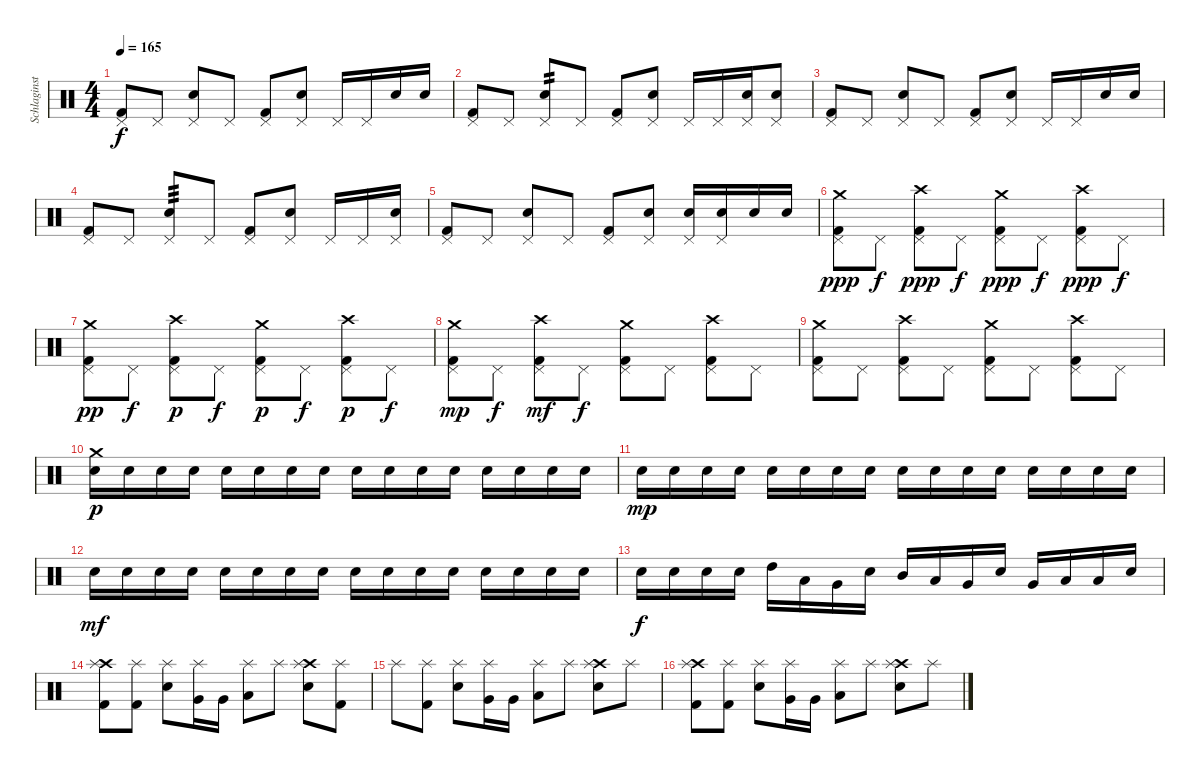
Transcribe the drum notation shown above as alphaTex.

\track ("Schlaginstrumente - Auswahl" "Schlaginst") {instrument percussion}
\staff {score}
\articulation defaults
\ts (4 4)
\tempo 165
\clef neutral
\ks c
("Pedal Hi-Hat (hit)" "Kick (hit) 2").8{dy f} "Pedal Hi-Hat (hit)".8 ("Pedal Hi-Hat (hit)" "Electric Snare (hit)").8 "Pedal Hi-Hat (hit)".8 ("Pedal Hi-Hat (hit)" "Kick (hit) 2").8 ("Pedal Hi-Hat (hit)" "Electric Snare (hit)").8 "Pedal Hi-Hat (hit)".16 "Pedal Hi-Hat (hit)".16 "Electric Snare (hit)".16 "Electric Snare (hit)".16 |
("Pedal Hi-Hat (hit)" "Kick (hit) 2").8 "Pedal Hi-Hat (hit)".8 ("Pedal Hi-Hat (hit)" "Electric Snare (hit)").8{tp 2} "Pedal Hi-Hat (hit)".8 ("Pedal Hi-Hat (hit)" "Kick (hit) 2").8 ("Pedal Hi-Hat (hit)" "Electric Snare (hit)").8 "Pedal Hi-Hat (hit)".16 "Pedal Hi-Hat (hit)".16 ("Pedal Hi-Hat (hit)" "Electric Snare (hit)").16 ("Pedal Hi-Hat (hit)" "Electric Snare (hit)").8 |
("Pedal Hi-Hat (hit)" "Kick (hit) 2").8 "Pedal Hi-Hat (hit)".8 ("Pedal Hi-Hat (hit)" "Electric Snare (hit)").8 "Pedal Hi-Hat (hit)".8 ("Pedal Hi-Hat (hit)" "Kick (hit) 2").8 ("Pedal Hi-Hat (hit)" "Electric Snare (hit)").8 "Pedal Hi-Hat (hit)".16 "Pedal Hi-Hat (hit)".16 "Electric Snare (hit)".16 "Electric Snare (hit)".16 |
("Pedal Hi-Hat (hit)" "Kick (hit) 2").8 "Pedal Hi-Hat (hit)".8 ("Pedal Hi-Hat (hit)" "Electric Snare (hit)").8{tp 3} "Pedal Hi-Hat (hit)".8 ("Pedal Hi-Hat (hit)" "Kick (hit) 2").8 ("Pedal Hi-Hat (hit)" "Electric Snare (hit)").8 "Pedal Hi-Hat (hit)".16 "Pedal Hi-Hat (hit)".16 ("Pedal Hi-Hat (hit)" "Electric Snare (hit)").16 |
("Pedal Hi-Hat (hit)" "Kick (hit) 2").8 "Pedal Hi-Hat (hit)".8 ("Pedal Hi-Hat (hit)" "Electric Snare (hit)").8 "Pedal Hi-Hat (hit)".8 ("Pedal Hi-Hat (hit)" "Kick (hit) 2").8 ("Pedal Hi-Hat (hit)" "Electric Snare (hit)").8 ("Pedal Hi-Hat (hit)" "Electric Snare (hit)").16 ("Pedal Hi-Hat (hit)" "Electric Snare (hit)").16 "Electric Snare (hit)".16 "Electric Snare (hit)".16 |
("Crash medium (hit)" "Pedal Hi-Hat (hit)" "Kick (hit) 2").8{dy ppp} "Pedal Hi-Hat (hit)".8{dy f} ("Crash high (hit)" "Pedal Hi-Hat (hit)" "Kick (hit) 2").8{dy ppp} "Pedal Hi-Hat (hit)".8{dy f} ("Crash medium (hit)" "Pedal Hi-Hat (hit)" "Kick (hit) 2").8{dy ppp} "Pedal Hi-Hat (hit)".8{dy f} ("Crash high (hit)" "Pedal Hi-Hat (hit)" "Kick (hit) 2").8{dy ppp} "Pedal Hi-Hat (hit)".8{dy f} |
("Crash medium (hit)" "Pedal Hi-Hat (hit)" "Kick (hit) 2").8{dy pp} "Pedal Hi-Hat (hit)".8{dy f} ("Crash high (hit)" "Pedal Hi-Hat (hit)" "Kick (hit) 2").8{dy p} "Pedal Hi-Hat (hit)".8{dy f} ("Crash medium (hit)" "Pedal Hi-Hat (hit)" "Kick (hit) 2").8{dy p} "Pedal Hi-Hat (hit)".8{dy f} ("Crash high (hit)" "Pedal Hi-Hat (hit)" "Kick (hit) 2").8{dy p} "Pedal Hi-Hat (hit)".8{dy f} |
("Crash medium (hit)" "Pedal Hi-Hat (hit)" "Kick (hit) 2").8{dy mp} "Pedal Hi-Hat (hit)".8{dy f} ("Crash high (hit)" "Pedal Hi-Hat (hit)" "Kick (hit) 2").8{dy mf} "Pedal Hi-Hat (hit)".8{dy f} ("Crash medium (hit)" "Pedal Hi-Hat (hit)" "Kick (hit) 2").8 "Pedal Hi-Hat (hit)".8 ("Crash high (hit)" "Pedal Hi-Hat (hit)" "Kick (hit) 2").8 "Pedal Hi-Hat (hit)".8 |
("Crash medium (hit)" "Pedal Hi-Hat (hit)" "Kick (hit) 2").8 "Pedal Hi-Hat (hit)".8 ("Crash high (hit)" "Pedal Hi-Hat (hit)" "Kick (hit) 2").8 "Pedal Hi-Hat (hit)".8 ("Crash medium (hit)" "Pedal Hi-Hat (hit)" "Kick (hit) 2").8 "Pedal Hi-Hat (hit)".8 ("Crash high (hit)" "Pedal Hi-Hat (hit)" "Kick (hit) 2").8 "Pedal Hi-Hat (hit)".8 |
("Crash medium (hit)" "Electric Snare (hit)").16{dy p} "Electric Snare (hit)".16 "Electric Snare (hit)".16 "Electric Snare (hit)".16 "Electric Snare (hit)".16 "Electric Snare (hit)".16 "Electric Snare (hit)".16 "Electric Snare (hit)".16 "Electric Snare (hit)".16 "Electric Snare (hit)".16 "Electric Snare (hit)".16 "Electric Snare (hit)".16 "Electric Snare (hit)".16 "Electric Snare (hit)".16 "Electric Snare (hit)".16 "Electric Snare (hit)".16 |
"Electric Snare (hit)".16{dy mp} "Electric Snare (hit)".16 "Electric Snare (hit)".16 "Electric Snare (hit)".16 "Electric Snare (hit)".16 "Electric Snare (hit)".16 "Electric Snare (hit)".16 "Electric Snare (hit)".16 "Electric Snare (hit)".16 "Electric Snare (hit)".16 "Electric Snare (hit)".16 "Electric Snare (hit)".16 "Electric Snare (hit)".16 "Electric Snare (hit)".16 "Electric Snare (hit)".16 "Electric Snare (hit)".16 |
"Electric Snare (hit)".16{dy mf} "Electric Snare (hit)".16 "Electric Snare (hit)".16 "Electric Snare (hit)".16 "Electric Snare (hit)".16 "Electric Snare (hit)".16 "Electric Snare (hit)".16 "Electric Snare (hit)".16 "Electric Snare (hit)".16 "Electric Snare (hit)".16 "Electric Snare (hit)".16 "Electric Snare (hit)".16 "Electric Snare (hit)".16 "Electric Snare (hit)".16 "Electric Snare (hit)".16 "Electric Snare (hit)".16 |
"Electric Snare (hit)".16{dy f} "Electric Snare (hit)".16 "Electric Snare (hit)".16 "Electric Snare (hit)".16 "High Tom (hit)".16 "Low Tom (hit)".16 "Very Low Tom (hit)".16 "Electric Snare (hit)".16 "Mid Tom (hit)".16 "Low Tom (hit)".16 "Very Low Tom (hit)".16 "Electric Snare (hit)".16 "Very Low Tom (hit)".16 "Low Floor Tom (hit)".16 "Low Floor Tom (hit)".16 "Electric Snare (hit)".16 |
("Crash high (hit)" "Splash (hit)" "Kick (hit) 2").8 ("Splash (hit)" "Kick (hit) 2").8 ("Splash (hit)" "Electric Snare (hit)").8 ("Very Low Tom (hit)" "Splash (hit)").16 "Very Low Tom (hit)".16 ("Low Floor Tom (hit)" "Splash (hit)").8 "Splash (hit)".8 ("Crash high (hit)" "Splash (hit)" "Electric Snare (hit)").8 ("Splash (hit)" "Kick (hit) 2").8 |
"Splash (hit)".8 ("Splash (hit)" "Kick (hit) 2").8 ("Splash (hit)" "Electric Snare (hit)").8 ("Very Low Tom (hit)" "Splash (hit)").16 "Very Low Tom (hit)".16 ("Low Floor Tom (hit)" "Splash (hit)").8 "Splash (hit)".8 ("Crash high (hit)" "Splash (hit)" "Electric Snare (hit)").8 "Splash (hit)".8 |
("Crash high (hit)" "Splash (hit)" "Kick (hit) 2").8 ("Splash (hit)" "Kick (hit) 2").8 ("Splash (hit)" "Electric Snare (hit)").8 ("Very Low Tom (hit)" "Splash (hit)").16 "Very Low Tom (hit)".16 ("Low Floor Tom (hit)" "Splash (hit)").8 "Splash (hit)".8 ("Crash high (hit)" "Splash (hit)" "Electric Snare (hit)").8 "Splash (hit)".8
